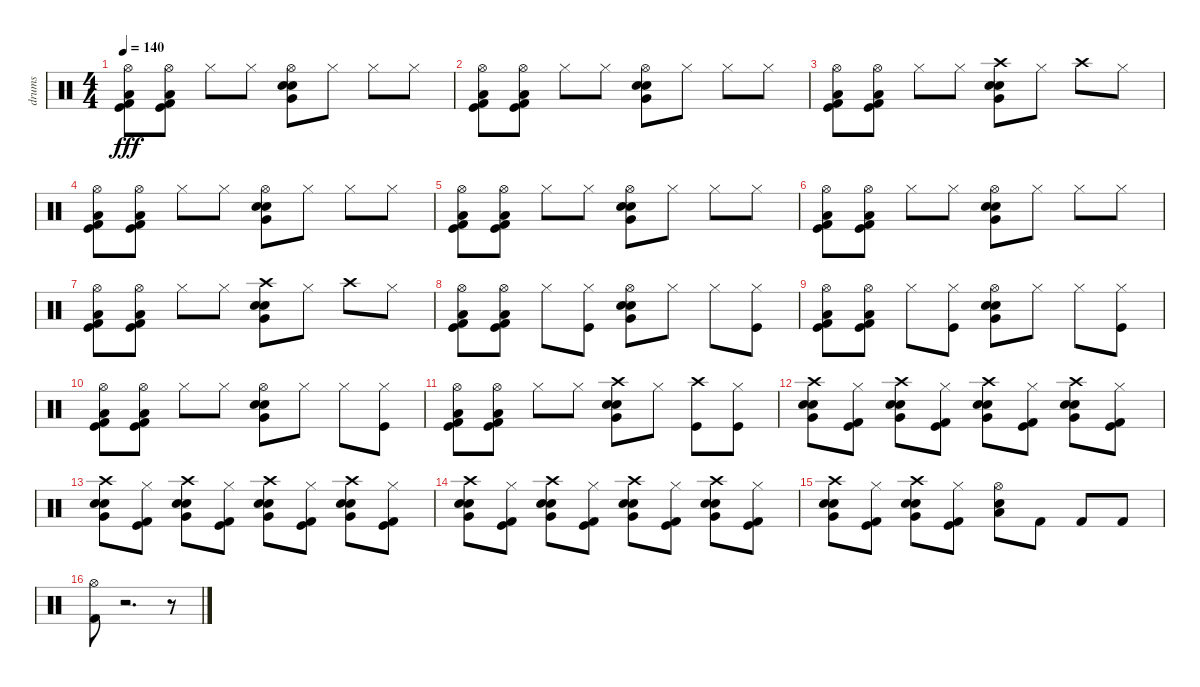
\track ("drums" "drums") {instrument percussion}
\staff {score}
\articulation defaults
\ts (4 4)
\tempo 140
\clef neutral
\ks c
("Hi-Hat (open)" "Low Floor Tom (hit)" "Kick (hit)" "Kick (hit) 2").8{dy fff} ("Hi-Hat (open)" "Low Floor Tom (hit)" "Kick (hit)" "Kick (hit) 2").8 "Hi-Hat (closed)".8 "Hi-Hat (closed)".8 ("Hi-Hat (open)" "Very Low Tom (hit)" "Snare (hit) 2" "Electric Snare (hit)").8 "Hi-Hat (closed)".8 "Hi-Hat (closed)".8 "Hi-Hat (closed)".8 |
("Hi-Hat (open)" "Low Floor Tom (hit)" "Kick (hit)" "Kick (hit) 2").8 ("Hi-Hat (open)" "Low Floor Tom (hit)" "Kick (hit)" "Kick (hit) 2").8 "Hi-Hat (closed)".8 "Hi-Hat (closed)".8 ("Hi-Hat (open)" "Very Low Tom (hit)" "Snare (hit) 2" "Electric Snare (hit)").8 "Hi-Hat (closed)".8 "Hi-Hat (closed)".8 "Hi-Hat (closed)".8 |
("Hi-Hat (open)" "Low Floor Tom (hit)" "Kick (hit)" "Kick (hit) 2").8 ("Hi-Hat (open)" "Low Floor Tom (hit)" "Kick (hit)" "Kick (hit) 2").8 "Hi-Hat (closed)".8 "Hi-Hat (closed)".8 ("Crash high (hit)" "Very Low Tom (hit)" "Snare (hit) 2" "Electric Snare (hit)").8 "Hi-Hat (closed)".8 "Crash high (hit)".8 "Hi-Hat (closed)".8 |
("Hi-Hat (open)" "Low Floor Tom (hit)" "Kick (hit)" "Kick (hit) 2").8 ("Hi-Hat (open)" "Low Floor Tom (hit)" "Kick (hit)" "Kick (hit) 2").8 "Hi-Hat (closed)".8 "Hi-Hat (closed)".8 ("Hi-Hat (open)" "Very Low Tom (hit)" "Snare (hit) 2" "Electric Snare (hit)").8 "Hi-Hat (closed)".8 "Hi-Hat (closed)".8 "Hi-Hat (closed)".8 |
("Hi-Hat (open)" "Low Floor Tom (hit)" "Kick (hit)" "Kick (hit) 2").8 ("Hi-Hat (open)" "Low Floor Tom (hit)" "Kick (hit)" "Kick (hit) 2").8 "Hi-Hat (closed)".8 "Hi-Hat (closed)".8 ("Hi-Hat (open)" "Very Low Tom (hit)" "Snare (hit) 2" "Electric Snare (hit)").8 "Hi-Hat (closed)".8 "Hi-Hat (closed)".8 "Hi-Hat (closed)".8 |
("Hi-Hat (open)" "Low Floor Tom (hit)" "Kick (hit)" "Kick (hit) 2").8 ("Hi-Hat (open)" "Low Floor Tom (hit)" "Kick (hit)" "Kick (hit) 2").8 "Hi-Hat (closed)".8 "Hi-Hat (closed)".8 ("Hi-Hat (open)" "Very Low Tom (hit)" "Snare (hit) 2" "Electric Snare (hit)").8 "Hi-Hat (closed)".8 "Hi-Hat (closed)".8 "Hi-Hat (closed)".8 |
("Hi-Hat (open)" "Low Floor Tom (hit)" "Kick (hit)" "Kick (hit) 2").8 ("Hi-Hat (open)" "Low Floor Tom (hit)" "Kick (hit)" "Kick (hit) 2").8 "Hi-Hat (closed)".8 "Hi-Hat (closed)".8 ("Crash high (hit)" "Very Low Tom (hit)" "Snare (hit) 2" "Electric Snare (hit)").8 "Hi-Hat (closed)".8 "Crash high (hit)".8 "Hi-Hat (closed)".8 |
("Hi-Hat (open)" "Low Floor Tom (hit)" "Kick (hit)" "Kick (hit) 2").8 ("Hi-Hat (open)" "Low Floor Tom (hit)" "Kick (hit)" "Kick (hit) 2").8 "Hi-Hat (closed)".8 ("Kick (hit)" "Hi-Hat (closed)").8 ("Hi-Hat (open)" "Very Low Tom (hit)" "Snare (hit) 2" "Electric Snare (hit)").8 "Hi-Hat (closed)".8 "Hi-Hat (closed)".8 ("Kick (hit)" "Hi-Hat (closed)").8 |
("Hi-Hat (open)" "Low Floor Tom (hit)" "Kick (hit)" "Kick (hit) 2").8 ("Hi-Hat (open)" "Low Floor Tom (hit)" "Kick (hit)" "Kick (hit) 2").8 "Hi-Hat (closed)".8 ("Kick (hit)" "Hi-Hat (closed)").8 ("Hi-Hat (open)" "Very Low Tom (hit)" "Snare (hit) 2" "Electric Snare (hit)").8 "Hi-Hat (closed)".8 "Hi-Hat (closed)".8 ("Kick (hit)" "Hi-Hat (closed)").8 |
("Hi-Hat (open)" "Low Floor Tom (hit)" "Kick (hit)" "Kick (hit) 2").8 ("Hi-Hat (open)" "Low Floor Tom (hit)" "Kick (hit)" "Kick (hit) 2").8 "Hi-Hat (closed)".8 "Hi-Hat (closed)".8 ("Hi-Hat (open)" "Very Low Tom (hit)" "Snare (hit) 2" "Electric Snare (hit)").8 "Hi-Hat (closed)".8 "Hi-Hat (closed)".8 ("Kick (hit)" "Hi-Hat (closed)").8 |
("Hi-Hat (open)" "Low Floor Tom (hit)" "Kick (hit)" "Kick (hit) 2").8 ("Hi-Hat (open)" "Low Floor Tom (hit)" "Kick (hit)" "Kick (hit) 2").8 "Hi-Hat (closed)".8 "Hi-Hat (closed)".8 ("Crash high (hit)" "Very Low Tom (hit)" "Snare (hit) 2" "Electric Snare (hit)").8 "Hi-Hat (closed)".8 ("Kick (hit)" "Crash high (hit)").8 ("Kick (hit)" "Hi-Hat (closed)").8 |
("Crash high (hit)" "Very Low Tom (hit)" "Snare (hit) 2" "Electric Snare (hit)").8 ("Kick (hit) 2" "Kick (hit)" "Hi-Hat (closed)").8 ("Very Low Tom (hit)" "Electric Snare (hit)" "Snare (hit) 2" "Crash high (hit)").8 ("Kick (hit)" "Kick (hit) 2" "Hi-Hat (closed)").8 ("Crash high (hit)" "Very Low Tom (hit)" "Snare (hit) 2" "Electric Snare (hit)").8 ("Kick (hit) 2" "Kick (hit)" "Hi-Hat (closed)").8 ("Very Low Tom (hit)" "Electric Snare (hit)" "Snare (hit) 2" "Crash high (hit)").8 ("Kick (hit)" "Kick (hit) 2" "Hi-Hat (closed)").8 |
("Crash high (hit)" "Very Low Tom (hit)" "Snare (hit) 2" "Electric Snare (hit)").8 ("Kick (hit) 2" "Kick (hit)" "Hi-Hat (closed)").8 ("Very Low Tom (hit)" "Electric Snare (hit)" "Snare (hit) 2" "Crash high (hit)").8 ("Kick (hit)" "Kick (hit) 2" "Hi-Hat (closed)").8 ("Crash high (hit)" "Very Low Tom (hit)" "Snare (hit) 2" "Electric Snare (hit)").8 ("Kick (hit) 2" "Kick (hit)" "Hi-Hat (closed)").8 ("Very Low Tom (hit)" "Electric Snare (hit)" "Snare (hit) 2" "Crash high (hit)").8 ("Kick (hit)" "Kick (hit) 2" "Hi-Hat (closed)").8 |
("Crash high (hit)" "Very Low Tom (hit)" "Snare (hit) 2" "Electric Snare (hit)").8 ("Kick (hit) 2" "Kick (hit)" "Hi-Hat (closed)").8 ("Very Low Tom (hit)" "Electric Snare (hit)" "Snare (hit) 2" "Crash high (hit)").8 ("Kick (hit)" "Kick (hit) 2" "Hi-Hat (closed)").8 ("Crash high (hit)" "Very Low Tom (hit)" "Snare (hit) 2" "Electric Snare (hit)").8 ("Kick (hit) 2" "Kick (hit)" "Hi-Hat (closed)").8 ("Very Low Tom (hit)" "Electric Snare (hit)" "Snare (hit) 2" "Crash high (hit)").8 ("Kick (hit)" "Kick (hit) 2" "Hi-Hat (closed)").8 |
("Crash high (hit)" "Very Low Tom (hit)" "Snare (hit) 2" "Electric Snare (hit)").8 ("Kick (hit) 2" "Kick (hit)" "Hi-Hat (closed)").8 ("Very Low Tom (hit)" "Electric Snare (hit)" "Snare (hit) 2" "Crash high (hit)").8 ("Kick (hit)" "Kick (hit) 2" "Hi-Hat (closed)").8 ("Hi-Hat (open)" "Low Tom (hit)" "Snare (hit) 2").8 "Kick (hit) 2".8 "Kick (hit) 2".8 "Kick (hit) 2".8 |
("Hi-Hat (open)" "Kick (hit) 2").8 r.2{d} r.8
